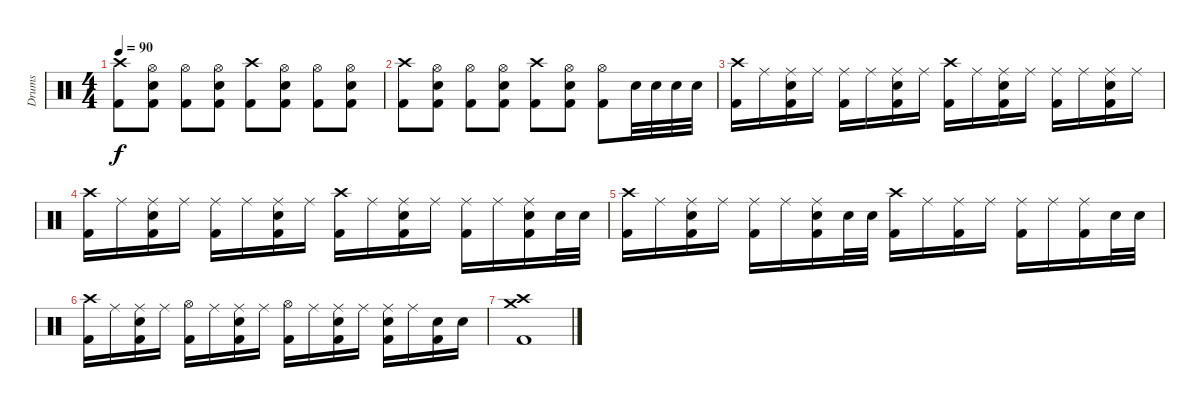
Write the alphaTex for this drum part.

\track ("Drums" "Drums") {instrument percussion}
\staff {score}
\articulation defaults
\ts (4 4)
\tempo 90
\clef neutral
\ks c
("Crash high (hit)" "Kick (hit) 2").8{dy f} ("Hi-Hat (open)" "Electric Snare (hit)" "Kick (hit) 2").8 ("Hi-Hat (open)" "Kick (hit) 2").8 ("Hi-Hat (open)" "Electric Snare (hit)" "Kick (hit) 2").8 ("Crash high (hit)" "Kick (hit) 2").8 ("Hi-Hat (open)" "Electric Snare (hit)" "Kick (hit) 2").8 ("Hi-Hat (open)" "Kick (hit) 2").8 ("Hi-Hat (open)" "Electric Snare (hit)" "Kick (hit) 2").8 |
("Crash high (hit)" "Kick (hit) 2").8 ("Hi-Hat (open)" "Electric Snare (hit)" "Kick (hit) 2").8 ("Hi-Hat (open)" "Kick (hit) 2").8 ("Hi-Hat (open)" "Electric Snare (hit)" "Kick (hit) 2").8 ("Crash high (hit)" "Kick (hit) 2").8 ("Hi-Hat (open)" "Electric Snare (hit)" "Kick (hit) 2").8 ("Hi-Hat (open)" "Kick (hit) 2").8 "Electric Snare (hit)".32 "Electric Snare (hit)".32 "Electric Snare (hit)".32 "Electric Snare (hit)".32 |
("Crash high (hit)" "Kick (hit) 2").16 "Ride (middle)".16 ("Ride (middle)" "Electric Snare (hit)" "Kick (hit) 2").16 "Ride (middle)".16 ("Ride (middle)" "Kick (hit) 2").16 "Ride (middle)".16 ("Ride (middle)" "Electric Snare (hit)" "Kick (hit) 2").16 "Ride (middle)".16 ("Crash high (hit)" "Kick (hit) 2").16 "Ride (middle)".16 ("Ride (middle)" "Electric Snare (hit)" "Kick (hit) 2").16 "Ride (middle)".16 ("Ride (middle)" "Kick (hit) 2").16 "Ride (middle)".16 ("Ride (middle)" "Electric Snare (hit)" "Kick (hit) 2").16 "Ride (middle)".16 |
("Crash high (hit)" "Kick (hit) 2").16 "Ride (middle)".16 ("Ride (middle)" "Electric Snare (hit)" "Kick (hit) 2").16 "Ride (middle)".16 ("Ride (middle)" "Kick (hit) 2").16 "Ride (middle)".16 ("Ride (middle)" "Electric Snare (hit)" "Kick (hit) 2").16 "Ride (middle)".16 ("Crash high (hit)" "Kick (hit) 2").16 "Ride (middle)".16 ("Ride (middle)" "Electric Snare (hit)" "Kick (hit) 2").16 "Ride (middle)".16 ("Ride (middle)" "Kick (hit) 2").16 "Ride (middle)".16 ("Ride (middle)" "Electric Snare (hit)" "Kick (hit) 2").16 "Electric Snare (hit)".32 "Electric Snare (hit)".32 |
("Crash high (hit)" "Kick (hit) 2").16 "Ride (middle)".16 ("Ride (middle)" "Electric Snare (hit)" "Kick (hit) 2").16 "Ride (middle)".16 ("Ride (middle)" "Kick (hit) 2").16 "Ride (middle)".16 ("Ride (middle)" "Electric Snare (hit)" "Kick (hit) 2").16 "Electric Snare (hit)".32 "Electric Snare (hit)".32 ("Crash high (hit)" "Kick (hit) 2").16 "Ride (middle)".16 ("Ride (middle)" "Kick (hit) 2").16 "Ride (middle)".16 ("Ride (middle)" "Kick (hit) 2").16 "Ride (middle)".16 ("Ride (middle)" "Kick (hit) 2").16 "Electric Snare (hit)".32 "Electric Snare (hit)".32 |
("Crash high (hit)" "Kick (hit) 2").16 "Ride (middle)".16 ("Ride (middle)" "Electric Snare (hit)" "Kick (hit) 2").16 "Ride (middle)".16 ("Hi-Hat (open)" "Kick (hit) 2").16 "Ride (middle)".16 ("Ride (middle)" "Electric Snare (hit)" "Kick (hit) 2").16 "Ride (middle)".16 ("Hi-Hat (open)" "Kick (hit) 2").16 "Ride (middle)".16 ("Ride (middle)" "Electric Snare (hit)" "Kick (hit) 2").16 "Ride (middle)".16 ("Ride (middle)" "Electric Snare (hit)" "Kick (hit) 2").16 "Ride (middle)".16 ("Electric Snare (hit)" "Kick (hit) 2").16 "Electric Snare (hit)".16 |
("Crash high (hit)" "Crash medium (hit)" "Kick (hit) 2").1
